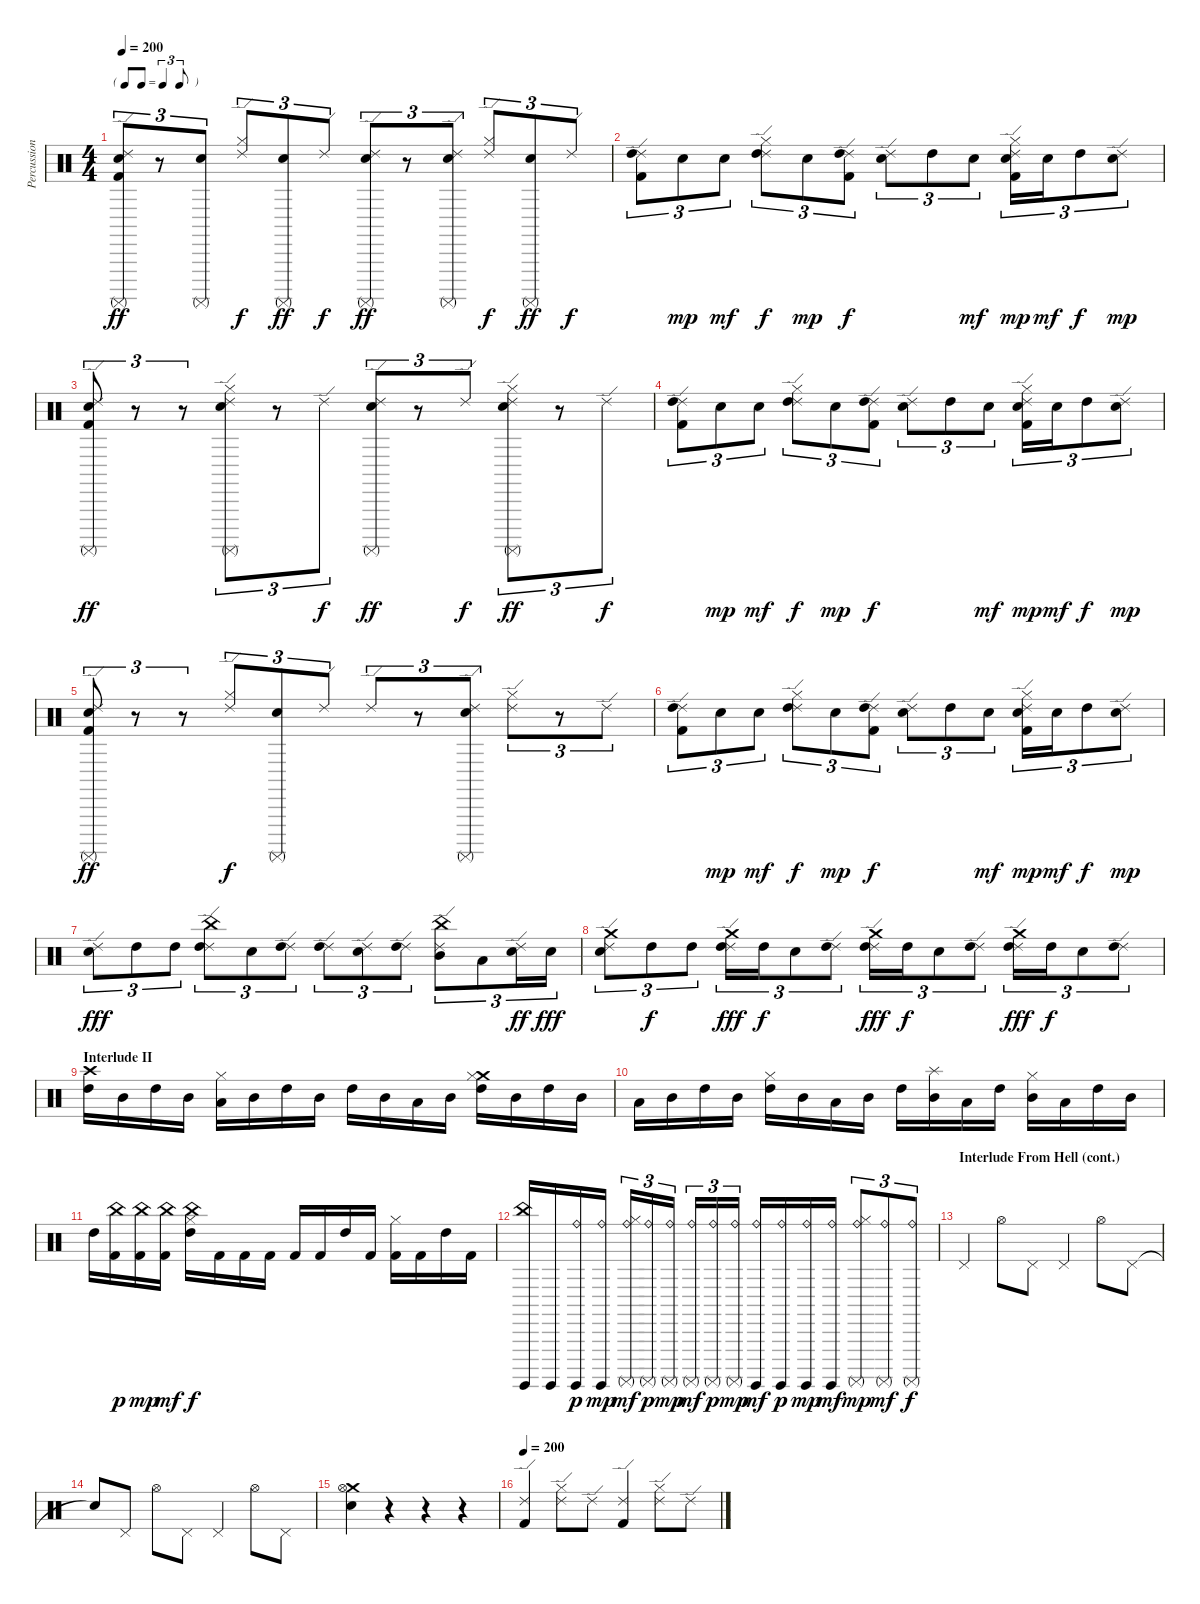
\track ("Percussion" "Percussion") {instrument percussion}
\staff {score}
\articulation defaults
\ts (4 4)
\tf triplet8th
\tempo 200
\clef neutral
\ks c
("Ride (edge) 2" "Electric Snare (hit)" "Surdo (mute)" "Kick (hit) 2").8{tu (3 2) dy ff} r.8{tu (3 2)} ("Electric Snare (hit)" "Surdo (mute)").8{tu (3 2)} ("Ride (edge) 2" "Hi-Hat (closed)").8{tu (3 2) dy f} ("Electric Snare (hit)" "Surdo (mute)").8{tu (3 2) dy ff} "Ride (edge) 2".8{tu (3 2) dy f} ("Ride (edge) 2" "Electric Snare (hit)" "Surdo (mute)").8{tu (3 2) dy ff} r.8{tu (3 2)} ("Ride (edge) 2" "Electric Snare (hit)" "Surdo (mute)").8{tu (3 2)} ("Ride (edge) 2" "Hi-Hat (closed)").8{tu (3 2) dy f} ("Electric Snare (hit)" "Surdo (mute)").8{tu (3 2) dy ff} "Ride (edge) 2".8{tu (3 2) dy f} |
("Ride (edge) 2" "High Tom (hit)" "Kick (hit) 2").8{tu (3 2)} "Electric Snare (hit)".8{tu (3 2) dy mp} "Electric Snare (hit)".8{tu (3 2) dy mf} ("Ride (edge) 2" "Hi-Hat (closed)" "High Tom (hit)").8{tu (3 2) dy f} "Electric Snare (hit)".8{tu (3 2) dy mp} ("Ride (edge) 2" "High Tom (hit)" "Kick (hit) 2").8{tu (3 2) dy f} ("Ride (edge) 2" "Electric Snare (hit)").8{tu (3 2)} "High Tom (hit)".8{tu (3 2)} "Electric Snare (hit)".8{tu (3 2) dy mf} ("Ride (edge) 2" "Hi-Hat (closed)" "Electric Snare (hit)" "Kick (hit) 2").16{tu (3 2) dy mp} "Electric Snare (hit)".16{tu (3 2) dy mf} "High Tom (hit)".8{tu (3 2) dy f} ("Ride (edge) 2" "Electric Snare (hit)").8{tu (3 2) dy mp} |
("Ride (edge) 2" "Electric Snare (hit)" "Surdo (mute)" "Kick (hit) 2").8{tu (3 2) dy ff} r.8{tu (3 2)} r.8{tu (3 2)} ("Ride (edge) 2" "Hi-Hat (closed)" "Electric Snare (hit)" "Surdo (mute)").8{tu (3 2)} r.8{tu (3 2)} "Ride (edge) 2".8{tu (3 2) dy f} ("Ride (edge) 2" "Electric Snare (hit)" "Surdo (mute)").8{tu (3 2) dy ff} r.8{tu (3 2)} "Ride (edge) 2".8{tu (3 2) dy f} ("Ride (edge) 2" "Hi-Hat (closed)" "Electric Snare (hit)" "Surdo (mute)").8{tu (3 2) dy ff} r.8{tu (3 2)} "Ride (edge) 2".8{tu (3 2) dy f} |
("Ride (edge) 2" "High Tom (hit)" "Kick (hit) 2").8{tu (3 2)} "Electric Snare (hit)".8{tu (3 2) dy mp} "Electric Snare (hit)".8{tu (3 2) dy mf} ("Ride (edge) 2" "Hi-Hat (closed)" "High Tom (hit)").8{tu (3 2) dy f} "Electric Snare (hit)".8{tu (3 2) dy mp} ("Ride (edge) 2" "High Tom (hit)" "Kick (hit) 2").8{tu (3 2) dy f} ("Ride (edge) 2" "Electric Snare (hit)").8{tu (3 2)} "High Tom (hit)".8{tu (3 2)} "Electric Snare (hit)".8{tu (3 2) dy mf} ("Ride (edge) 2" "Hi-Hat (closed)" "Electric Snare (hit)" "Kick (hit) 2").16{tu (3 2) dy mp} "Electric Snare (hit)".16{tu (3 2) dy mf} "High Tom (hit)".8{tu (3 2) dy f} ("Ride (edge) 2" "Electric Snare (hit)").8{tu (3 2) dy mp} |
("Ride (edge) 2" "Electric Snare (hit)" "Surdo (mute)" "Kick (hit) 2").8{tu (3 2) dy ff} r.8{tu (3 2)} r.8{tu (3 2)} ("Ride (edge) 2" "Hi-Hat (closed)").8{tu (3 2) dy f} ("Electric Snare (hit)" "Surdo (mute)").8{tu (3 2)} "Ride (edge) 2".8{tu (3 2)} "Ride (edge) 2".8{tu (3 2)} r.8{tu (3 2)} ("Ride (edge) 2" "Electric Snare (hit)" "Surdo (mute)").8{tu (3 2)} ("Ride (edge) 2" "Hi-Hat (closed)").8{tu (3 2)} r.8{tu (3 2)} "Ride (edge) 2".8{tu (3 2)} |
("Ride (edge) 2" "High Tom (hit)" "Kick (hit) 2").8{tu (3 2)} "Electric Snare (hit)".8{tu (3 2) dy mp} "Electric Snare (hit)".8{tu (3 2) dy mf} ("Ride (edge) 2" "Hi-Hat (closed)" "High Tom (hit)").8{tu (3 2) dy f} "Electric Snare (hit)".8{tu (3 2) dy mp} ("Ride (edge) 2" "High Tom (hit)" "Kick (hit) 2").8{tu (3 2) dy f} ("Ride (edge) 2" "Electric Snare (hit)").8{tu (3 2)} "High Tom (hit)".8{tu (3 2)} "Electric Snare (hit)".8{tu (3 2) dy mf} ("Ride (edge) 2" "Hi-Hat (closed)" "Electric Snare (hit)" "Kick (hit) 2").16{tu (3 2) dy mp} "Electric Snare (hit)".16{tu (3 2) dy mf} "High Tom (hit)".8{tu (3 2) dy f} ("Ride (edge) 2" "Electric Snare (hit)").8{tu (3 2) dy mp} |
("Ride (edge) 2" "Electric Snare (hit)").8{tu (3 2) dy fff} "High Tom (hit)".8{tu (3 2)} "High Tom (hit)".8{tu (3 2)} ("Ride (edge) 2" "China (hit)" "High Tom (hit)").8{tu (3 2)} "Electric Snare (hit)".8{tu (3 2)} ("Ride (edge) 2" "High Tom (hit)").8{tu (3 2)} ("Ride (edge) 2" "High Tom (hit)").8{tu (3 2)} ("Ride (edge) 2" "Electric Snare (hit)").8{tu (3 2)} ("Ride (edge) 2" "High Tom (hit)").8{tu (3 2)} ("Ride (edge) 2" "China (hit)" "Mid Tom (hit)").8{tu (3 2)} "Low Tom (hit)".8{tu (3 2)} ("Ride (edge) 2" "Electric Snare (hit)").16{tu (3 2) dy ff} "Electric Snare (hit)".16{tu (3 2) dy fff} |
("Ride (edge) 2" "Crash medium (hit)" "Electric Snare (hit)").8{tu (3 2)} "High Tom (hit)".8{tu (3 2) dy f} "High Tom (hit)".8{tu (3 2)} ("Ride (edge) 2" "Crash medium (hit)" "High Tom (hit)").16{tu (3 2) dy fff} "High Tom (hit)".16{tu (3 2) dy f} "Electric Snare (hit)".8{tu (3 2)} ("Ride (edge) 2" "High Tom (hit)").8{tu (3 2)} ("Ride (edge) 2" "Crash medium (hit)" "High Tom (hit)").16{tu (3 2) dy fff} "High Tom (hit)".16{tu (3 2) dy f} "Electric Snare (hit)".8{tu (3 2)} ("Ride (edge) 2" "High Tom (hit)").8{tu (3 2)} ("Ride (edge) 2" "Crash medium (hit)" "High Tom (hit)").16{tu (3 2) dy fff} "High Tom (hit)".16{tu (3 2) dy f} "Electric Snare (hit)".8{tu (3 2)} ("Ride (edge) 2" "High Tom (hit)").8{tu (3 2)} |
\section ("" "Interlude II")
("Crash high (hit)" "High Tom (hit)").16 "Mid Tom (hit)".16 "High Tom (hit)".16 "Mid Tom (hit)".16 ("Hi-Hat (closed)" "Low Tom (hit)").16 "Mid Tom (hit)".16 "High Tom (hit)".16 "Mid Tom (hit)".16 "High Tom (hit)".16 "Mid Tom (hit)".16 "Low Tom (hit)".16 "Mid Tom (hit)".16 ("Crash medium (hit)" "Hi-Hat (closed)" "High Tom (hit)").16 "Mid Tom (hit)".16 "High Tom (hit)".16 "Mid Tom (hit)".16 |
"Low Tom (hit)".16 "Mid Tom (hit)".16 "High Tom (hit)".16 "Mid Tom (hit)".16 ("Hi-Hat (closed)" "High Tom (hit)").16 "Mid Tom (hit)".16 "Low Tom (hit)".16 "Mid Tom (hit)".16 "High Tom (hit)".16 ("Splash (hit)" "Mid Tom (hit)").16 "Low Tom (hit)".16 "High Tom (hit)".16 ("Hi-Hat (closed)" "Mid Tom (hit)").16 "Low Tom (hit)".16 "High Tom (hit)".16 "Mid Tom (hit)".16 |
"High Tom (hit)".16 ("China (hit)" "Kick (hit) 2").16{dy p} ("China (hit)" "Kick (hit) 2").16{dy mp} ("China (hit)" "Kick (hit) 2").16{dy mf} ("China (hit)" "Hi-Hat (closed)" "High Tom (hit)").16{dy f} "Kick (hit) 2".16 "Kick (hit) 2".16 "Kick (hit) 2".16 "Kick (hit) 2".16 "Kick (hit) 2".16 "High Tom (hit)".16 "Kick (hit) 2".16 ("Hi-Hat (closed)" "Kick (hit) 2").16 "Kick (hit) 2".16 "High Tom (hit)".16 "Kick (hit) 2".16 |
("China (hit)" "Surdo (hit)").16 "Surdo (hit)".16 ("Ride (bell)" "Surdo (hit)").16{dy p} ("Ride (bell)" "Surdo (hit)").16{dy mp} ("Ride (bell)" "Hi-Hat (closed)" "Surdo (mute)").16{tu (3 2) dy mf} ("Ride (bell)" "Surdo (mute)").16{tu (3 2) dy p} ("Ride (bell)" "Surdo (mute)").16{tu (3 2) dy mp} ("Ride (bell)" "Surdo (mute)").16{tu (3 2) dy mf} ("Ride (bell)" "Surdo (mute)").16{tu (3 2) dy p} ("Ride (bell)" "Surdo (mute)").16{tu (3 2) dy mp} ("Ride (bell)" "Surdo (hit)").16{dy mf} ("Ride (bell)" "Surdo (hit)").16{dy p} ("Ride (bell)" "Surdo (hit)").16{dy mp} ("Ride (bell)" "Surdo (hit)").16{dy mf} ("Ride (bell)" "Hi-Hat (closed)" "Surdo (mute)").8{tu (3 2) dy mp} ("Ride (bell)" "Surdo (mute)").8{tu (3 2) dy mf} ("Ride (bell)" "Surdo (mute)").8{tu (3 2) dy f} |
\section ("" "Interlude From Hell (cont.)")
"Pedal Hi-Hat (hit)".4 "Hi-Hat (open)".8 "Pedal Hi-Hat (hit)".8 "Pedal Hi-Hat (hit)".4 "Hi-Hat (open)".8 "Pedal Hi-Hat (hit)".8 |
"Snare (hit)"{t}.8 "Pedal Hi-Hat (hit)".8 "Hi-Hat (open)".8 "Pedal Hi-Hat (hit)".8 "Pedal Hi-Hat (hit)".4 "Hi-Hat (open)".8 "Pedal Hi-Hat (hit)".8 |
("Crash medium (hit)" "Hi-Hat (open)" "Electric Snare (hit)").4 r.4{volume 0} r.4 r.4 |
\tempo 200
("Ride (edge) 2" "Kick (hit) 2").4{volume 11} ("Ride (edge) 2" "Hi-Hat (closed)").8 "Ride (edge) 2".8 ("Ride (edge) 2" "Kick (hit) 2").4 ("Ride (edge) 2" "Hi-Hat (closed)").8 "Ride (edge) 2".8
